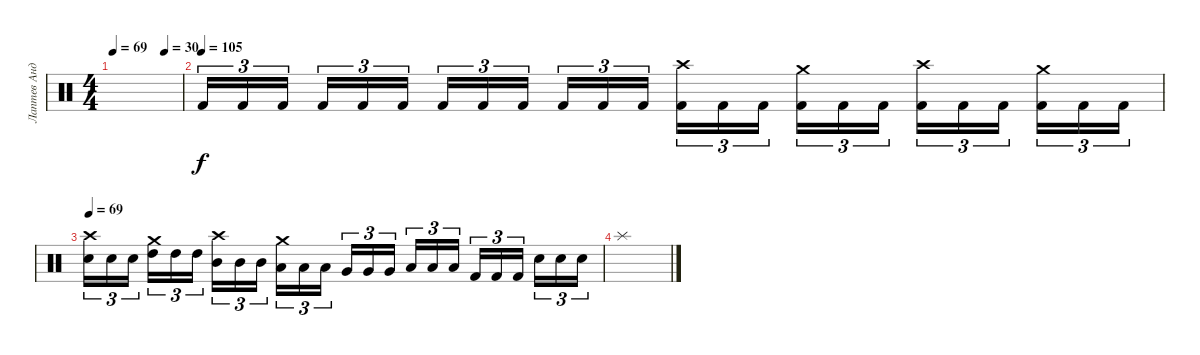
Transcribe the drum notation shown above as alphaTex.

\track ("Лаптев Андрей" "Лаптев Анд") {instrument percussion}
\staff {score}
\articulation defaults
\ts (4 4)
\tempo 69
\tempo (30 0.75)
\clef neutral
\ks c
|
\tempo 120
\tempo (105)
"Kick (hit) 2".16{tu (3 2)} "Kick (hit) 2".16{tu (3 2)} "Kick (hit) 2".16{tu (3 2)} "Kick (hit) 2".16{tu (3 2)} "Kick (hit) 2".16{tu (3 2)} "Kick (hit) 2".16{tu (3 2)} "Kick (hit) 2".16{tu (3 2)} "Kick (hit) 2".16{tu (3 2)} "Kick (hit) 2".16{tu (3 2)} "Kick (hit) 2".16{tu (3 2)} "Kick (hit) 2".16{tu (3 2)} "Kick (hit) 2".16{tu (3 2)} ("Kick (hit) 2" "Crash high (hit)").16{tu (3 2)} "Kick (hit) 2".16{tu (3 2)} "Kick (hit) 2".16{tu (3 2)} ("Kick (hit) 2" "Crash medium (hit)").16{tu (3 2)} "Kick (hit) 2".16{tu (3 2)} "Kick (hit) 2".16{tu (3 2)} ("Kick (hit) 2" "Crash high (hit)").16{tu (3 2)} "Kick (hit) 2".16{tu (3 2)} "Kick (hit) 2".16{tu (3 2)} ("Kick (hit) 2" "Crash medium (hit)").16{tu (3 2)} "Kick (hit) 2".16{tu (3 2)} "Kick (hit) 2".16{tu (3 2)} |
\tempo 69
("Electric Snare (hit)" "Crash high (hit)").16{tu (3 2)} "Electric Snare (hit)".16{tu (3 2)} "Electric Snare (hit)".16{tu (3 2)} ("High Tom (hit)" "Crash medium (hit)").16{tu (3 2)} "High Tom (hit)".16{tu (3 2)} "High Tom (hit)".16{tu (3 2)} ("Mid Tom (hit)" "Crash high (hit)").16{tu (3 2)} "Mid Tom (hit)".16{tu (3 2)} "Mid Tom (hit)".16{tu (3 2)} ("Low Tom (hit)" "Crash medium (hit)").16{tu (3 2)} "Low Tom (hit)".16{tu (3 2)} "Low Tom (hit)".16{tu (3 2)} "Very Low Tom (hit)".16{tu (3 2)} "Very Low Tom (hit)".16{tu (3 2)} "Very Low Tom (hit)".16{tu (3 2)} "Low Floor Tom (hit)".16{tu (3 2)} "Low Floor Tom (hit)".16{tu (3 2)} "Low Floor Tom (hit)".16{tu (3 2)} "Kick (hit) 2".16{tu (3 2)} "Kick (hit) 2".16{tu (3 2)} "Kick (hit) 2".16{tu (3 2)} "Electric Snare (hit)".16{tu (3 2)} "Electric Snare (hit)".16{tu (3 2)} "Electric Snare (hit)".16{tu (3 2)} |
"Splash (hit)".1
